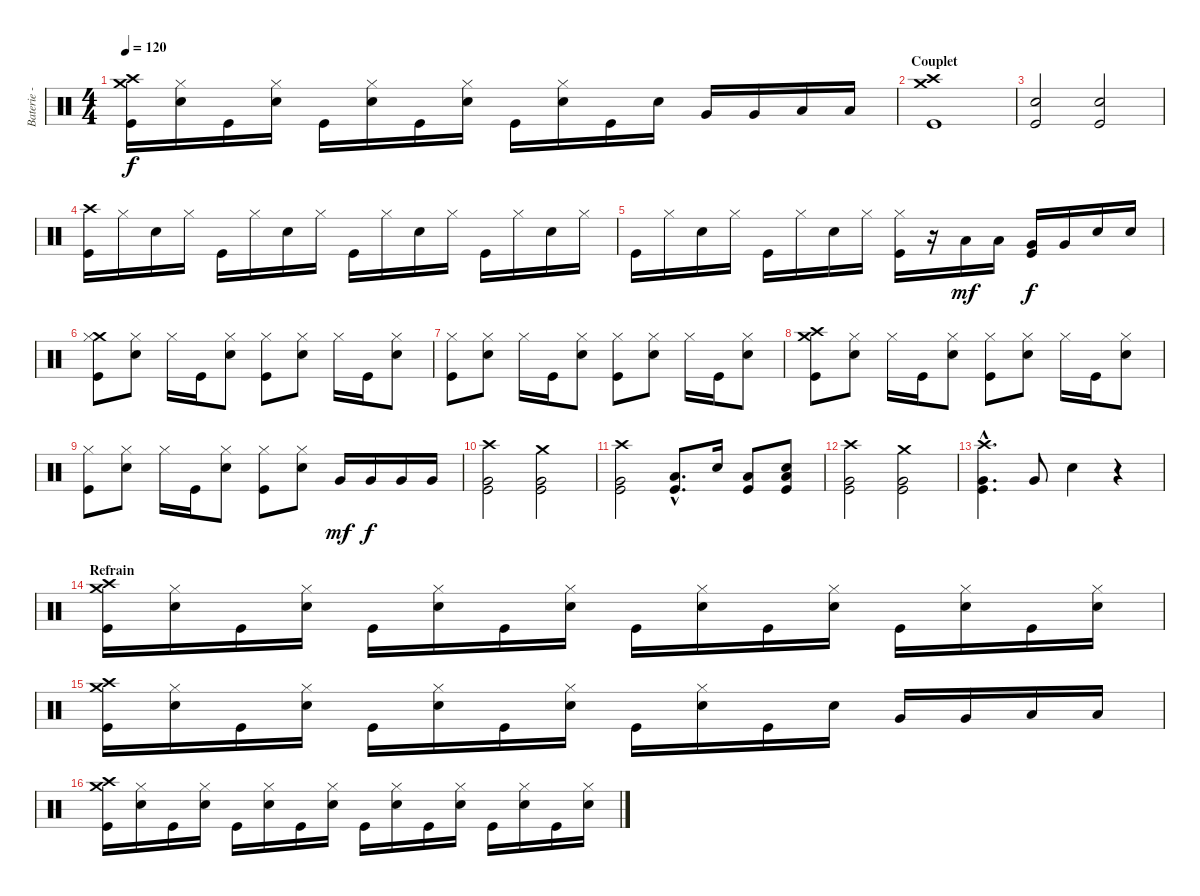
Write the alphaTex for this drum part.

\track ("Baterie - Nounours" "Baterie - ") {instrument percussion}
\staff {score}
\articulation defaults
\ts (4 4)
\tempo 120
\clef neutral
\ks c
("Crash medium (hit)" "Crash high (hit)" "Kick (hit)").16{dy f} ("Hi-Hat (closed)" "Electric Snare (hit)").16 "Kick (hit)".16 ("Hi-Hat (closed)" "Electric Snare (hit)").16 "Kick (hit)".16 ("Hi-Hat (closed)" "Electric Snare (hit)").16 "Kick (hit)".16 ("Hi-Hat (closed)" "Electric Snare (hit)").16 "Kick (hit)".16 ("Hi-Hat (closed)" "Electric Snare (hit)").16 "Kick (hit)".16 "Electric Snare (hit)".16 "Very Low Tom (hit)".16 "Very Low Tom (hit)".16 "Low Floor Tom (hit)".16 "Low Floor Tom (hit)".16 |
\section ("" "Couplet")
("Crash medium (hit)" "Crash high (hit)" "Kick (hit)").1 |
("Electric Snare (hit)" "Kick (hit)").2 ("Electric Snare (hit)" "Kick (hit)").2 |
("Crash high (hit)" "Kick (hit)").16 "Hi-Hat (closed)".16 "Electric Snare (hit)".16 "Hi-Hat (closed)".16 "Kick (hit)".16 "Hi-Hat (closed)".16 "Electric Snare (hit)".16 "Hi-Hat (closed)".16 "Kick (hit)".16 "Hi-Hat (closed)".16 "Electric Snare (hit)".16 "Hi-Hat (closed)".16 "Kick (hit)".16 "Hi-Hat (closed)".16 "Electric Snare (hit)".16 "Hi-Hat (closed)".16 |
"Kick (hit)".16 "Hi-Hat (closed)".16 "Electric Snare (hit)".16 "Hi-Hat (closed)".16 "Kick (hit)".16 "Hi-Hat (closed)".16 "Electric Snare (hit)".16 "Hi-Hat (closed)".16 ("Hi-Hat (closed)" "Kick (hit)").16 r.16 "Low Floor Tom (hit)".16{dy mf} "Low Floor Tom (hit)".16 ("Very Low Tom (hit)" "Kick (hit)").16{dy f} "Very Low Tom (hit)".16 "Electric Snare (hit)".16 "Electric Snare (hit)".16 |
("Crash medium (hit)" "Hi-Hat (closed)" "Kick (hit)").8 ("Hi-Hat (closed)" "Electric Snare (hit)").8 "Hi-Hat (closed)".16 "Kick (hit)".16 ("Hi-Hat (closed)" "Electric Snare (hit)").8 ("Hi-Hat (closed)" "Kick (hit)").8 ("Hi-Hat (closed)" "Electric Snare (hit)").8 "Hi-Hat (closed)".16 "Kick (hit)".16 ("Hi-Hat (closed)" "Electric Snare (hit)").8 |
("Hi-Hat (closed)" "Kick (hit)").8 ("Hi-Hat (closed)" "Electric Snare (hit)").8 "Hi-Hat (closed)".16 "Kick (hit)".16 ("Hi-Hat (closed)" "Electric Snare (hit)").8 ("Hi-Hat (closed)" "Kick (hit)").8 ("Hi-Hat (closed)" "Electric Snare (hit)").8 "Hi-Hat (closed)".16 "Kick (hit)".16 ("Hi-Hat (closed)" "Electric Snare (hit)").8 |
("Crash high (hit)" "Crash medium (hit)" "Kick (hit)").8 ("Hi-Hat (closed)" "Electric Snare (hit)").8 "Hi-Hat (closed)".16 "Kick (hit)".16 ("Hi-Hat (closed)" "Electric Snare (hit)").8 ("Hi-Hat (closed)" "Kick (hit)").8 ("Hi-Hat (closed)" "Electric Snare (hit)").8 "Hi-Hat (closed)".16 "Kick (hit)".16 ("Hi-Hat (closed)" "Electric Snare (hit)").8 |
("Hi-Hat (closed)" "Kick (hit)").8 ("Hi-Hat (closed)" "Electric Snare (hit)").8 "Hi-Hat (closed)".16 "Kick (hit)".16 ("Hi-Hat (closed)" "Electric Snare (hit)").8 ("Hi-Hat (closed)" "Kick (hit)").8 ("Hi-Hat (closed)" "Electric Snare (hit)").8 "Very Low Tom (hit)".16{dy mf} "Very Low Tom (hit)".16{dy f} "Very Low Tom (hit)".16 "Very Low Tom (hit)".16 |
("Crash high (hit)" "Very Low Tom (hit)" "Kick (hit)").2 ("Crash medium (hit)" "Very Low Tom (hit)" "Kick (hit)").2 |
("Crash high (hit)" "Very Low Tom (hit)" "Kick (hit)").2 ("Low Floor Tom (hit)"{hac} "Kick (hit)"{hac}).8{d} "Electric Snare (hit)".16 ("Low Floor Tom (hit)" "Kick (hit)").8 ("Electric Snare (hit)" "Low Floor Tom (hit)" "Kick (hit)").8 |
("Crash high (hit)" "Very Low Tom (hit)" "Kick (hit)").2 ("Crash medium (hit)" "Very Low Tom (hit)" "Kick (hit)").2 |
("Crash high (hit)"{hac} "Very Low Tom (hit)"{hac} "Kick (hit)"{hac}).4{d} "Very Low Tom (hit)".8 "Electric Snare (hit)".4 r.4 |
\section ("" "Refrain")
("Crash medium (hit)" "Crash high (hit)" "Kick (hit)").16 ("Hi-Hat (closed)" "Electric Snare (hit)").16 "Kick (hit)".16 ("Hi-Hat (closed)" "Electric Snare (hit)").16 "Kick (hit)".16 ("Hi-Hat (closed)" "Electric Snare (hit)").16 "Kick (hit)".16 ("Hi-Hat (closed)" "Electric Snare (hit)").16 "Kick (hit)".16 ("Hi-Hat (closed)" "Electric Snare (hit)").16 "Kick (hit)".16 ("Hi-Hat (closed)" "Electric Snare (hit)").16 "Kick (hit)".16 ("Hi-Hat (closed)" "Electric Snare (hit)").16 "Kick (hit)".16 ("Hi-Hat (closed)" "Electric Snare (hit)").16 |
("Crash medium (hit)" "Crash high (hit)" "Kick (hit)").16 ("Hi-Hat (closed)" "Electric Snare (hit)").16 "Kick (hit)".16 ("Hi-Hat (closed)" "Electric Snare (hit)").16 "Kick (hit)".16 ("Hi-Hat (closed)" "Electric Snare (hit)").16 "Kick (hit)".16 ("Hi-Hat (closed)" "Electric Snare (hit)").16 "Kick (hit)".16 ("Hi-Hat (closed)" "Electric Snare (hit)").16 "Kick (hit)".16 "Electric Snare (hit)".16 "Very Low Tom (hit)".16 "Very Low Tom (hit)".16 "Low Floor Tom (hit)".16 "Low Floor Tom (hit)".16 |
("Crash medium (hit)" "Crash high (hit)" "Kick (hit)").16 ("Hi-Hat (closed)" "Electric Snare (hit)").16 "Kick (hit)".16 ("Hi-Hat (closed)" "Electric Snare (hit)").16 "Kick (hit)".16 ("Hi-Hat (closed)" "Electric Snare (hit)").16 "Kick (hit)".16 ("Hi-Hat (closed)" "Electric Snare (hit)").16 "Kick (hit)".16 ("Hi-Hat (closed)" "Electric Snare (hit)").16 "Kick (hit)".16 ("Hi-Hat (closed)" "Electric Snare (hit)").16 "Kick (hit)".16 ("Hi-Hat (closed)" "Electric Snare (hit)").16 "Kick (hit)".16 ("Hi-Hat (closed)" "Electric Snare (hit)").16
